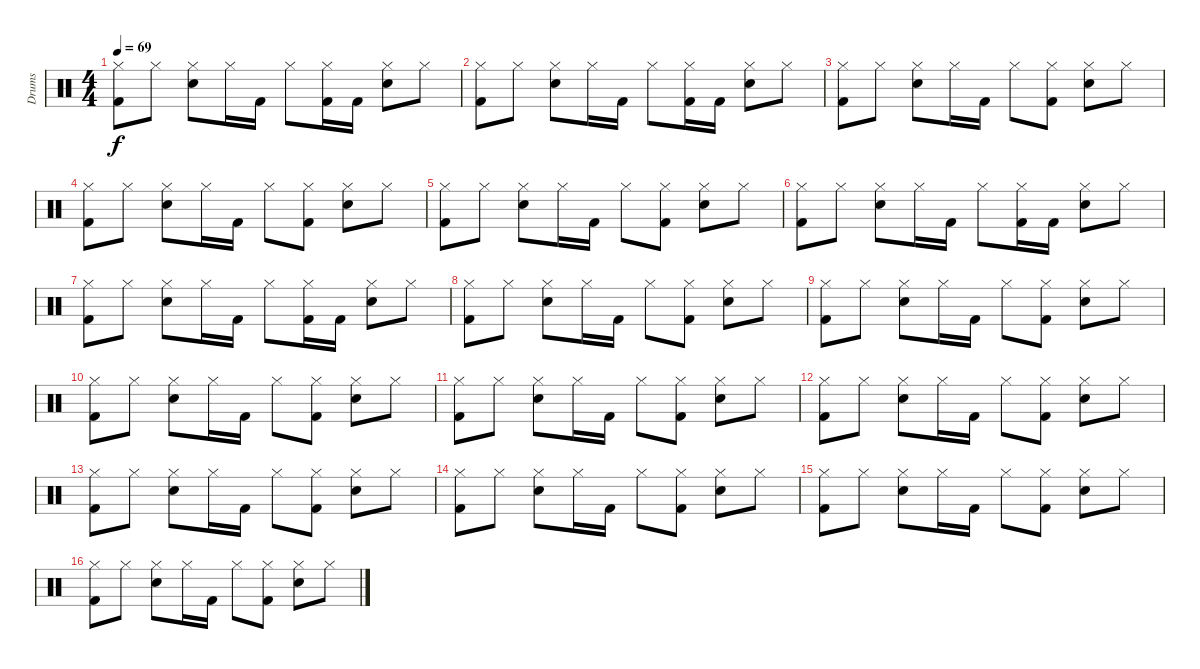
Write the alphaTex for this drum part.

\track ("Drums" "Drums") {instrument percussion}
\staff {score}
\articulation defaults
\ts (4 4)
\tempo 69
\clef neutral
\ks c
("Hi-Hat (closed)" "Kick (hit) 2").8{dy f} "Hi-Hat (closed)".8 ("Hi-Hat (closed)" "Snare (hit) 2").8 "Hi-Hat (closed)".16 "Kick (hit) 2".16 "Hi-Hat (closed)".8 ("Kick (hit) 2" "Hi-Hat (closed)").16 "Kick (hit) 2".16 ("Hi-Hat (closed)" "Snare (hit) 2").8 "Hi-Hat (closed)".8 |
("Hi-Hat (closed)" "Kick (hit) 2").8 "Hi-Hat (closed)".8 ("Hi-Hat (closed)" "Snare (hit) 2").8 "Hi-Hat (closed)".16 "Kick (hit) 2".16 "Hi-Hat (closed)".8 ("Kick (hit) 2" "Hi-Hat (closed)").16 "Kick (hit) 2".16 ("Hi-Hat (closed)" "Snare (hit) 2").8 "Hi-Hat (closed)".8 |
("Hi-Hat (closed)" "Kick (hit) 2").8 "Hi-Hat (closed)".8 ("Hi-Hat (closed)" "Snare (hit) 2").8 "Hi-Hat (closed)".16 "Kick (hit) 2".16 "Hi-Hat (closed)".8 ("Kick (hit) 2" "Hi-Hat (closed)").8 ("Hi-Hat (closed)" "Snare (hit) 2").8 "Hi-Hat (closed)".8 |
("Hi-Hat (closed)" "Kick (hit) 2").8 "Hi-Hat (closed)".8 ("Hi-Hat (closed)" "Snare (hit) 2").8 "Hi-Hat (closed)".16 "Kick (hit) 2".16 "Hi-Hat (closed)".8 ("Kick (hit) 2" "Hi-Hat (closed)").8 ("Hi-Hat (closed)" "Snare (hit) 2").8 "Hi-Hat (closed)".8 |
("Hi-Hat (closed)" "Kick (hit) 2").8 "Hi-Hat (closed)".8 ("Hi-Hat (closed)" "Snare (hit) 2").8 "Hi-Hat (closed)".16 "Kick (hit) 2".16 "Hi-Hat (closed)".8 ("Kick (hit) 2" "Hi-Hat (closed)").8 ("Hi-Hat (closed)" "Snare (hit) 2").8 "Hi-Hat (closed)".8 |
("Hi-Hat (closed)" "Kick (hit) 2").8 "Hi-Hat (closed)".8 ("Hi-Hat (closed)" "Snare (hit) 2").8 "Hi-Hat (closed)".16 "Kick (hit) 2".16 "Hi-Hat (closed)".8 ("Kick (hit) 2" "Hi-Hat (closed)").16 "Kick (hit) 2".16 ("Hi-Hat (closed)" "Snare (hit) 2").8 "Hi-Hat (closed)".8 |
("Hi-Hat (closed)" "Kick (hit) 2").8 "Hi-Hat (closed)".8 ("Hi-Hat (closed)" "Snare (hit) 2").8 "Hi-Hat (closed)".16 "Kick (hit) 2".16 "Hi-Hat (closed)".8 ("Kick (hit) 2" "Hi-Hat (closed)").16 "Kick (hit) 2".16 ("Hi-Hat (closed)" "Snare (hit) 2").8 "Hi-Hat (closed)".8 |
("Hi-Hat (closed)" "Kick (hit) 2").8 "Hi-Hat (closed)".8 ("Hi-Hat (closed)" "Snare (hit) 2").8 "Hi-Hat (closed)".16 "Kick (hit) 2".16 "Hi-Hat (closed)".8 ("Kick (hit) 2" "Hi-Hat (closed)").8 ("Hi-Hat (closed)" "Snare (hit) 2").8 "Hi-Hat (closed)".8 |
("Hi-Hat (closed)" "Kick (hit) 2").8 "Hi-Hat (closed)".8 ("Hi-Hat (closed)" "Snare (hit) 2").8 "Hi-Hat (closed)".16 "Kick (hit) 2".16 "Hi-Hat (closed)".8 ("Kick (hit) 2" "Hi-Hat (closed)").8 ("Hi-Hat (closed)" "Snare (hit) 2").8 "Hi-Hat (closed)".8 |
("Hi-Hat (closed)" "Kick (hit) 2").8 "Hi-Hat (closed)".8 ("Hi-Hat (closed)" "Snare (hit) 2").8 "Hi-Hat (closed)".16 "Kick (hit) 2".16 "Hi-Hat (closed)".8 ("Kick (hit) 2" "Hi-Hat (closed)").8 ("Hi-Hat (closed)" "Snare (hit) 2").8 "Hi-Hat (closed)".8 |
("Hi-Hat (closed)" "Kick (hit) 2").8 "Hi-Hat (closed)".8 ("Hi-Hat (closed)" "Snare (hit) 2").8 "Hi-Hat (closed)".16 "Kick (hit) 2".16 "Hi-Hat (closed)".8 ("Kick (hit) 2" "Hi-Hat (closed)").8 ("Hi-Hat (closed)" "Snare (hit) 2").8 "Hi-Hat (closed)".8 |
("Hi-Hat (closed)" "Kick (hit) 2").8 "Hi-Hat (closed)".8 ("Hi-Hat (closed)" "Snare (hit) 2").8 "Hi-Hat (closed)".16 "Kick (hit) 2".16 "Hi-Hat (closed)".8 ("Kick (hit) 2" "Hi-Hat (closed)").8 ("Hi-Hat (closed)" "Snare (hit) 2").8 "Hi-Hat (closed)".8 |
("Hi-Hat (closed)" "Kick (hit) 2").8 "Hi-Hat (closed)".8 ("Hi-Hat (closed)" "Snare (hit) 2").8 "Hi-Hat (closed)".16 "Kick (hit) 2".16 "Hi-Hat (closed)".8 ("Kick (hit) 2" "Hi-Hat (closed)").8 ("Hi-Hat (closed)" "Snare (hit) 2").8 "Hi-Hat (closed)".8 |
("Hi-Hat (closed)" "Kick (hit) 2").8 "Hi-Hat (closed)".8 ("Hi-Hat (closed)" "Snare (hit) 2").8 "Hi-Hat (closed)".16 "Kick (hit) 2".16 "Hi-Hat (closed)".8 ("Kick (hit) 2" "Hi-Hat (closed)").8 ("Hi-Hat (closed)" "Snare (hit) 2").8 "Hi-Hat (closed)".8 |
("Hi-Hat (closed)" "Kick (hit) 2").8 "Hi-Hat (closed)".8 ("Hi-Hat (closed)" "Snare (hit) 2").8 "Hi-Hat (closed)".16 "Kick (hit) 2".16 "Hi-Hat (closed)".8 ("Kick (hit) 2" "Hi-Hat (closed)").8 ("Hi-Hat (closed)" "Snare (hit) 2").8 "Hi-Hat (closed)".8 |
("Hi-Hat (closed)" "Kick (hit) 2").8 "Hi-Hat (closed)".8 ("Hi-Hat (closed)" "Snare (hit) 2").8 "Hi-Hat (closed)".16 "Kick (hit) 2".16 "Hi-Hat (closed)".8 ("Kick (hit) 2" "Hi-Hat (closed)").8 ("Hi-Hat (closed)" "Snare (hit) 2").8 "Hi-Hat (closed)".8
